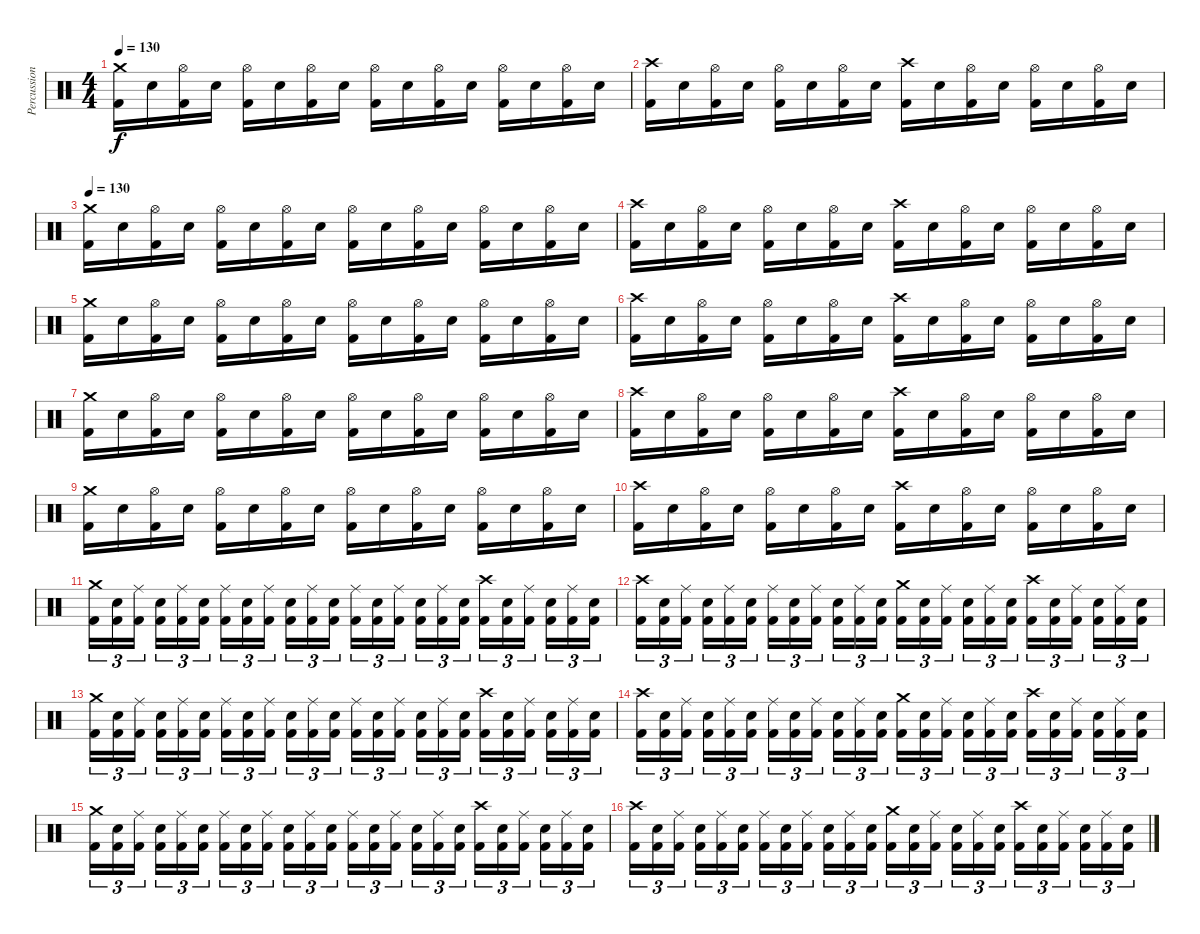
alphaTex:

\track ("Percussion" "Percussion") {instrument percussion}
\staff {score}
\articulation defaults
\ts (4 4)
\tempo 130
\clef neutral
\ks c
("Kick (hit) 2" "Crash medium (hit)").16{dy f} "Electric Snare (hit)".16 ("Kick (hit) 2" "Hi-Hat (open)").16 "Electric Snare (hit)".16 ("Kick (hit) 2" "Hi-Hat (open)").16 "Electric Snare (hit)".16 ("Kick (hit) 2" "Hi-Hat (open)").16 "Electric Snare (hit)".16 ("Kick (hit) 2" "Hi-Hat (open)").16 "Electric Snare (hit)".16 ("Kick (hit) 2" "Hi-Hat (open)").16 "Electric Snare (hit)".16 ("Kick (hit) 2" "Hi-Hat (open)").16 "Electric Snare (hit)".16 ("Kick (hit) 2" "Hi-Hat (open)").16 "Electric Snare (hit)".16 |
("Kick (hit) 2" "Crash high (hit)").16 "Electric Snare (hit)".16 ("Kick (hit) 2" "Hi-Hat (open)").16 "Electric Snare (hit)".16 ("Kick (hit) 2" "Hi-Hat (open)").16 "Electric Snare (hit)".16 ("Kick (hit) 2" "Hi-Hat (open)").16 "Electric Snare (hit)".16 ("Kick (hit) 2" "Crash high (hit)").16 "Electric Snare (hit)".16 ("Kick (hit) 2" "Hi-Hat (open)").16 "Electric Snare (hit)".16 ("Kick (hit) 2" "Hi-Hat (open)").16 "Electric Snare (hit)".16 ("Kick (hit) 2" "Hi-Hat (open)").16 "Electric Snare (hit)".16 |
\tempo 130
("Kick (hit) 2" "Crash medium (hit)").16 "Electric Snare (hit)".16 ("Kick (hit) 2" "Hi-Hat (open)").16 "Electric Snare (hit)".16 ("Kick (hit) 2" "Hi-Hat (open)").16 "Electric Snare (hit)".16 ("Kick (hit) 2" "Hi-Hat (open)").16 "Electric Snare (hit)".16 ("Kick (hit) 2" "Hi-Hat (open)").16 "Electric Snare (hit)".16 ("Kick (hit) 2" "Hi-Hat (open)").16 "Electric Snare (hit)".16 ("Kick (hit) 2" "Hi-Hat (open)").16 "Electric Snare (hit)".16 ("Kick (hit) 2" "Hi-Hat (open)").16 "Electric Snare (hit)".16 |
("Kick (hit) 2" "Crash high (hit)").16 "Electric Snare (hit)".16 ("Kick (hit) 2" "Hi-Hat (open)").16 "Electric Snare (hit)".16 ("Kick (hit) 2" "Hi-Hat (open)").16 "Electric Snare (hit)".16 ("Kick (hit) 2" "Hi-Hat (open)").16 "Electric Snare (hit)".16 ("Kick (hit) 2" "Crash high (hit)").16 "Electric Snare (hit)".16 ("Kick (hit) 2" "Hi-Hat (open)").16 "Electric Snare (hit)".16 ("Kick (hit) 2" "Hi-Hat (open)").16 "Electric Snare (hit)".16 ("Kick (hit) 2" "Hi-Hat (open)").16 "Electric Snare (hit)".16 |
("Kick (hit) 2" "Crash medium (hit)").16 "Electric Snare (hit)".16 ("Kick (hit) 2" "Hi-Hat (open)").16 "Electric Snare (hit)".16 ("Kick (hit) 2" "Hi-Hat (open)").16 "Electric Snare (hit)".16 ("Kick (hit) 2" "Hi-Hat (open)").16 "Electric Snare (hit)".16 ("Kick (hit) 2" "Hi-Hat (open)").16 "Electric Snare (hit)".16 ("Kick (hit) 2" "Hi-Hat (open)").16 "Electric Snare (hit)".16 ("Kick (hit) 2" "Hi-Hat (open)").16 "Electric Snare (hit)".16 ("Kick (hit) 2" "Hi-Hat (open)").16 "Electric Snare (hit)".16 |
("Kick (hit) 2" "Crash high (hit)").16 "Electric Snare (hit)".16 ("Kick (hit) 2" "Hi-Hat (open)").16 "Electric Snare (hit)".16 ("Kick (hit) 2" "Hi-Hat (open)").16 "Electric Snare (hit)".16 ("Kick (hit) 2" "Hi-Hat (open)").16 "Electric Snare (hit)".16 ("Kick (hit) 2" "Crash high (hit)").16 "Electric Snare (hit)".16 ("Kick (hit) 2" "Hi-Hat (open)").16 "Electric Snare (hit)".16 ("Kick (hit) 2" "Hi-Hat (open)").16 "Electric Snare (hit)".16 ("Kick (hit) 2" "Hi-Hat (open)").16 "Electric Snare (hit)".16 |
("Kick (hit) 2" "Crash medium (hit)").16 "Electric Snare (hit)".16 ("Kick (hit) 2" "Hi-Hat (open)").16 "Electric Snare (hit)".16 ("Kick (hit) 2" "Hi-Hat (open)").16 "Electric Snare (hit)".16 ("Kick (hit) 2" "Hi-Hat (open)").16 "Electric Snare (hit)".16 ("Kick (hit) 2" "Hi-Hat (open)").16 "Electric Snare (hit)".16 ("Kick (hit) 2" "Hi-Hat (open)").16 "Electric Snare (hit)".16 ("Kick (hit) 2" "Hi-Hat (open)").16 "Electric Snare (hit)".16 ("Kick (hit) 2" "Hi-Hat (open)").16 "Electric Snare (hit)".16 |
("Kick (hit) 2" "Crash high (hit)").16 "Electric Snare (hit)".16 ("Kick (hit) 2" "Hi-Hat (open)").16 "Electric Snare (hit)".16 ("Kick (hit) 2" "Hi-Hat (open)").16 "Electric Snare (hit)".16 ("Kick (hit) 2" "Hi-Hat (open)").16 "Electric Snare (hit)".16 ("Kick (hit) 2" "Crash high (hit)").16 "Electric Snare (hit)".16 ("Kick (hit) 2" "Hi-Hat (open)").16 "Electric Snare (hit)".16 ("Kick (hit) 2" "Hi-Hat (open)").16 "Electric Snare (hit)".16 ("Kick (hit) 2" "Hi-Hat (open)").16 "Electric Snare (hit)".16 |
("Kick (hit) 2" "Crash medium (hit)").16 "Electric Snare (hit)".16 ("Kick (hit) 2" "Hi-Hat (open)").16 "Electric Snare (hit)".16 ("Kick (hit) 2" "Hi-Hat (open)").16 "Electric Snare (hit)".16 ("Kick (hit) 2" "Hi-Hat (open)").16 "Electric Snare (hit)".16 ("Kick (hit) 2" "Hi-Hat (open)").16 "Electric Snare (hit)".16 ("Kick (hit) 2" "Hi-Hat (open)").16 "Electric Snare (hit)".16 ("Kick (hit) 2" "Hi-Hat (open)").16 "Electric Snare (hit)".16 ("Kick (hit) 2" "Hi-Hat (open)").16 "Electric Snare (hit)".16 |
("Kick (hit) 2" "Crash high (hit)").16 "Electric Snare (hit)".16 ("Kick (hit) 2" "Hi-Hat (open)").16 "Electric Snare (hit)".16 ("Kick (hit) 2" "Hi-Hat (open)").16 "Electric Snare (hit)".16 ("Kick (hit) 2" "Hi-Hat (open)").16 "Electric Snare (hit)".16 ("Kick (hit) 2" "Crash high (hit)").16 "Electric Snare (hit)".16 ("Kick (hit) 2" "Hi-Hat (open)").16 "Electric Snare (hit)".16 ("Kick (hit) 2" "Hi-Hat (open)").16 "Electric Snare (hit)".16 ("Kick (hit) 2" "Hi-Hat (open)").16 "Electric Snare (hit)".16 |
("Kick (hit) 2" "Crash medium (hit)").16{tu (3 2)} ("Kick (hit) 2" "Electric Snare (hit)").16{tu (3 2)} ("Kick (hit) 2" "Ride (middle)").16{tu (3 2)} ("Kick (hit) 2" "Electric Snare (hit)").16{tu (3 2)} ("Kick (hit) 2" "Ride (middle)").16{tu (3 2)} ("Kick (hit) 2" "Electric Snare (hit)").16{tu (3 2)} ("Kick (hit) 2" "Ride (middle)").16{tu (3 2)} ("Kick (hit) 2" "Electric Snare (hit)").16{tu (3 2)} ("Kick (hit) 2" "Ride (middle)").16{tu (3 2)} ("Kick (hit) 2" "Electric Snare (hit)").16{tu (3 2)} ("Kick (hit) 2" "Ride (middle)").16{tu (3 2)} ("Kick (hit) 2" "Electric Snare (hit)").16{tu (3 2)} ("Kick (hit) 2" "Ride (middle)").16{tu (3 2)} ("Kick (hit) 2" "Electric Snare (hit)").16{tu (3 2)} ("Kick (hit) 2" "Ride (middle)").16{tu (3 2)} ("Kick (hit) 2" "Electric Snare (hit)").16{tu (3 2)} ("Kick (hit) 2" "Ride (middle)").16{tu (3 2)} ("Kick (hit) 2" "Electric Snare (hit)").16{tu (3 2)} ("Kick (hit) 2" "Crash high (hit)").16{tu (3 2)} ("Kick (hit) 2" "Electric Snare (hit)").16{tu (3 2)} ("Kick (hit) 2" "Ride (middle)").16{tu (3 2)} ("Kick (hit) 2" "Electric Snare (hit)").16{tu (3 2)} ("Kick (hit) 2" "Ride (middle)").16{tu (3 2)} ("Kick (hit) 2" "Electric Snare (hit)").16{tu (3 2)} |
("Kick (hit) 2" "Crash high (hit)").16{tu (3 2)} ("Kick (hit) 2" "Electric Snare (hit)").16{tu (3 2)} ("Kick (hit) 2" "Ride (middle)").16{tu (3 2)} ("Kick (hit) 2" "Electric Snare (hit)").16{tu (3 2)} ("Kick (hit) 2" "Ride (middle)").16{tu (3 2)} ("Kick (hit) 2" "Electric Snare (hit)").16{tu (3 2)} ("Kick (hit) 2" "Ride (middle)").16{tu (3 2)} ("Kick (hit) 2" "Electric Snare (hit)").16{tu (3 2)} ("Kick (hit) 2" "Ride (middle)").16{tu (3 2)} ("Kick (hit) 2" "Electric Snare (hit)").16{tu (3 2)} ("Kick (hit) 2" "Ride (middle)").16{tu (3 2)} ("Kick (hit) 2" "Electric Snare (hit)").16{tu (3 2)} ("Kick (hit) 2" "Crash medium (hit)").16{tu (3 2)} ("Kick (hit) 2" "Electric Snare (hit)").16{tu (3 2)} ("Kick (hit) 2" "Ride (middle)").16{tu (3 2)} ("Kick (hit) 2" "Electric Snare (hit)").16{tu (3 2)} ("Kick (hit) 2" "Ride (middle)").16{tu (3 2)} ("Kick (hit) 2" "Electric Snare (hit)").16{tu (3 2)} ("Kick (hit) 2" "Crash high (hit)").16{tu (3 2)} ("Kick (hit) 2" "Electric Snare (hit)").16{tu (3 2)} ("Kick (hit) 2" "Ride (middle)").16{tu (3 2)} ("Kick (hit) 2" "Electric Snare (hit)").16{tu (3 2)} ("Kick (hit) 2" "Ride (middle)").16{tu (3 2)} ("Kick (hit) 2" "Electric Snare (hit)").16{tu (3 2)} |
("Kick (hit) 2" "Crash medium (hit)").16{tu (3 2)} ("Kick (hit) 2" "Electric Snare (hit)").16{tu (3 2)} ("Kick (hit) 2" "Ride (middle)").16{tu (3 2)} ("Kick (hit) 2" "Electric Snare (hit)").16{tu (3 2)} ("Kick (hit) 2" "Ride (middle)").16{tu (3 2)} ("Kick (hit) 2" "Electric Snare (hit)").16{tu (3 2)} ("Kick (hit) 2" "Ride (middle)").16{tu (3 2)} ("Kick (hit) 2" "Electric Snare (hit)").16{tu (3 2)} ("Kick (hit) 2" "Ride (middle)").16{tu (3 2)} ("Kick (hit) 2" "Electric Snare (hit)").16{tu (3 2)} ("Kick (hit) 2" "Ride (middle)").16{tu (3 2)} ("Kick (hit) 2" "Electric Snare (hit)").16{tu (3 2)} ("Kick (hit) 2" "Ride (middle)").16{tu (3 2)} ("Kick (hit) 2" "Electric Snare (hit)").16{tu (3 2)} ("Kick (hit) 2" "Ride (middle)").16{tu (3 2)} ("Kick (hit) 2" "Electric Snare (hit)").16{tu (3 2)} ("Kick (hit) 2" "Ride (middle)").16{tu (3 2)} ("Kick (hit) 2" "Electric Snare (hit)").16{tu (3 2)} ("Kick (hit) 2" "Crash high (hit)").16{tu (3 2)} ("Kick (hit) 2" "Electric Snare (hit)").16{tu (3 2)} ("Kick (hit) 2" "Ride (middle)").16{tu (3 2)} ("Kick (hit) 2" "Electric Snare (hit)").16{tu (3 2)} ("Kick (hit) 2" "Ride (middle)").16{tu (3 2)} ("Kick (hit) 2" "Electric Snare (hit)").16{tu (3 2)} |
("Kick (hit) 2" "Crash high (hit)").16{tu (3 2)} ("Kick (hit) 2" "Electric Snare (hit)").16{tu (3 2)} ("Kick (hit) 2" "Ride (middle)").16{tu (3 2)} ("Kick (hit) 2" "Electric Snare (hit)").16{tu (3 2)} ("Kick (hit) 2" "Ride (middle)").16{tu (3 2)} ("Kick (hit) 2" "Electric Snare (hit)").16{tu (3 2)} ("Kick (hit) 2" "Ride (middle)").16{tu (3 2)} ("Kick (hit) 2" "Electric Snare (hit)").16{tu (3 2)} ("Kick (hit) 2" "Ride (middle)").16{tu (3 2)} ("Kick (hit) 2" "Electric Snare (hit)").16{tu (3 2)} ("Kick (hit) 2" "Ride (middle)").16{tu (3 2)} ("Kick (hit) 2" "Electric Snare (hit)").16{tu (3 2)} ("Kick (hit) 2" "Crash medium (hit)").16{tu (3 2)} ("Kick (hit) 2" "Electric Snare (hit)").16{tu (3 2)} ("Kick (hit) 2" "Ride (middle)").16{tu (3 2)} ("Kick (hit) 2" "Electric Snare (hit)").16{tu (3 2)} ("Kick (hit) 2" "Ride (middle)").16{tu (3 2)} ("Kick (hit) 2" "Electric Snare (hit)").16{tu (3 2)} ("Kick (hit) 2" "Crash high (hit)").16{tu (3 2)} ("Kick (hit) 2" "Electric Snare (hit)").16{tu (3 2)} ("Kick (hit) 2" "Ride (middle)").16{tu (3 2)} ("Kick (hit) 2" "Electric Snare (hit)").16{tu (3 2)} ("Kick (hit) 2" "Ride (middle)").16{tu (3 2)} ("Kick (hit) 2" "Electric Snare (hit)").16{tu (3 2)} |
("Kick (hit) 2" "Crash medium (hit)").16{tu (3 2)} ("Kick (hit) 2" "Electric Snare (hit)").16{tu (3 2)} ("Kick (hit) 2" "Ride (middle)").16{tu (3 2)} ("Kick (hit) 2" "Electric Snare (hit)").16{tu (3 2)} ("Kick (hit) 2" "Ride (middle)").16{tu (3 2)} ("Kick (hit) 2" "Electric Snare (hit)").16{tu (3 2)} ("Kick (hit) 2" "Ride (middle)").16{tu (3 2)} ("Kick (hit) 2" "Electric Snare (hit)").16{tu (3 2)} ("Kick (hit) 2" "Ride (middle)").16{tu (3 2)} ("Kick (hit) 2" "Electric Snare (hit)").16{tu (3 2)} ("Kick (hit) 2" "Ride (middle)").16{tu (3 2)} ("Kick (hit) 2" "Electric Snare (hit)").16{tu (3 2)} ("Kick (hit) 2" "Ride (middle)").16{tu (3 2)} ("Kick (hit) 2" "Electric Snare (hit)").16{tu (3 2)} ("Kick (hit) 2" "Ride (middle)").16{tu (3 2)} ("Kick (hit) 2" "Electric Snare (hit)").16{tu (3 2)} ("Kick (hit) 2" "Ride (middle)").16{tu (3 2)} ("Kick (hit) 2" "Electric Snare (hit)").16{tu (3 2)} ("Kick (hit) 2" "Crash high (hit)").16{tu (3 2)} ("Kick (hit) 2" "Electric Snare (hit)").16{tu (3 2)} ("Kick (hit) 2" "Ride (middle)").16{tu (3 2)} ("Kick (hit) 2" "Electric Snare (hit)").16{tu (3 2)} ("Kick (hit) 2" "Ride (middle)").16{tu (3 2)} ("Kick (hit) 2" "Electric Snare (hit)").16{tu (3 2)} |
("Kick (hit) 2" "Crash high (hit)").16{tu (3 2)} ("Kick (hit) 2" "Electric Snare (hit)").16{tu (3 2)} ("Kick (hit) 2" "Ride (middle)").16{tu (3 2)} ("Kick (hit) 2" "Electric Snare (hit)").16{tu (3 2)} ("Kick (hit) 2" "Ride (middle)").16{tu (3 2)} ("Kick (hit) 2" "Electric Snare (hit)").16{tu (3 2)} ("Kick (hit) 2" "Ride (middle)").16{tu (3 2)} ("Kick (hit) 2" "Electric Snare (hit)").16{tu (3 2)} ("Kick (hit) 2" "Ride (middle)").16{tu (3 2)} ("Kick (hit) 2" "Electric Snare (hit)").16{tu (3 2)} ("Kick (hit) 2" "Ride (middle)").16{tu (3 2)} ("Kick (hit) 2" "Electric Snare (hit)").16{tu (3 2)} ("Kick (hit) 2" "Crash medium (hit)").16{tu (3 2)} ("Kick (hit) 2" "Electric Snare (hit)").16{tu (3 2)} ("Kick (hit) 2" "Ride (middle)").16{tu (3 2)} ("Kick (hit) 2" "Electric Snare (hit)").16{tu (3 2)} ("Kick (hit) 2" "Ride (middle)").16{tu (3 2)} ("Kick (hit) 2" "Electric Snare (hit)").16{tu (3 2)} ("Kick (hit) 2" "Crash high (hit)").16{tu (3 2)} ("Kick (hit) 2" "Electric Snare (hit)").16{tu (3 2)} ("Kick (hit) 2" "Ride (middle)").16{tu (3 2)} ("Kick (hit) 2" "Electric Snare (hit)").16{tu (3 2)} ("Kick (hit) 2" "Ride (middle)").16{tu (3 2)} ("Kick (hit) 2" "Electric Snare (hit)").16{tu (3 2)}
